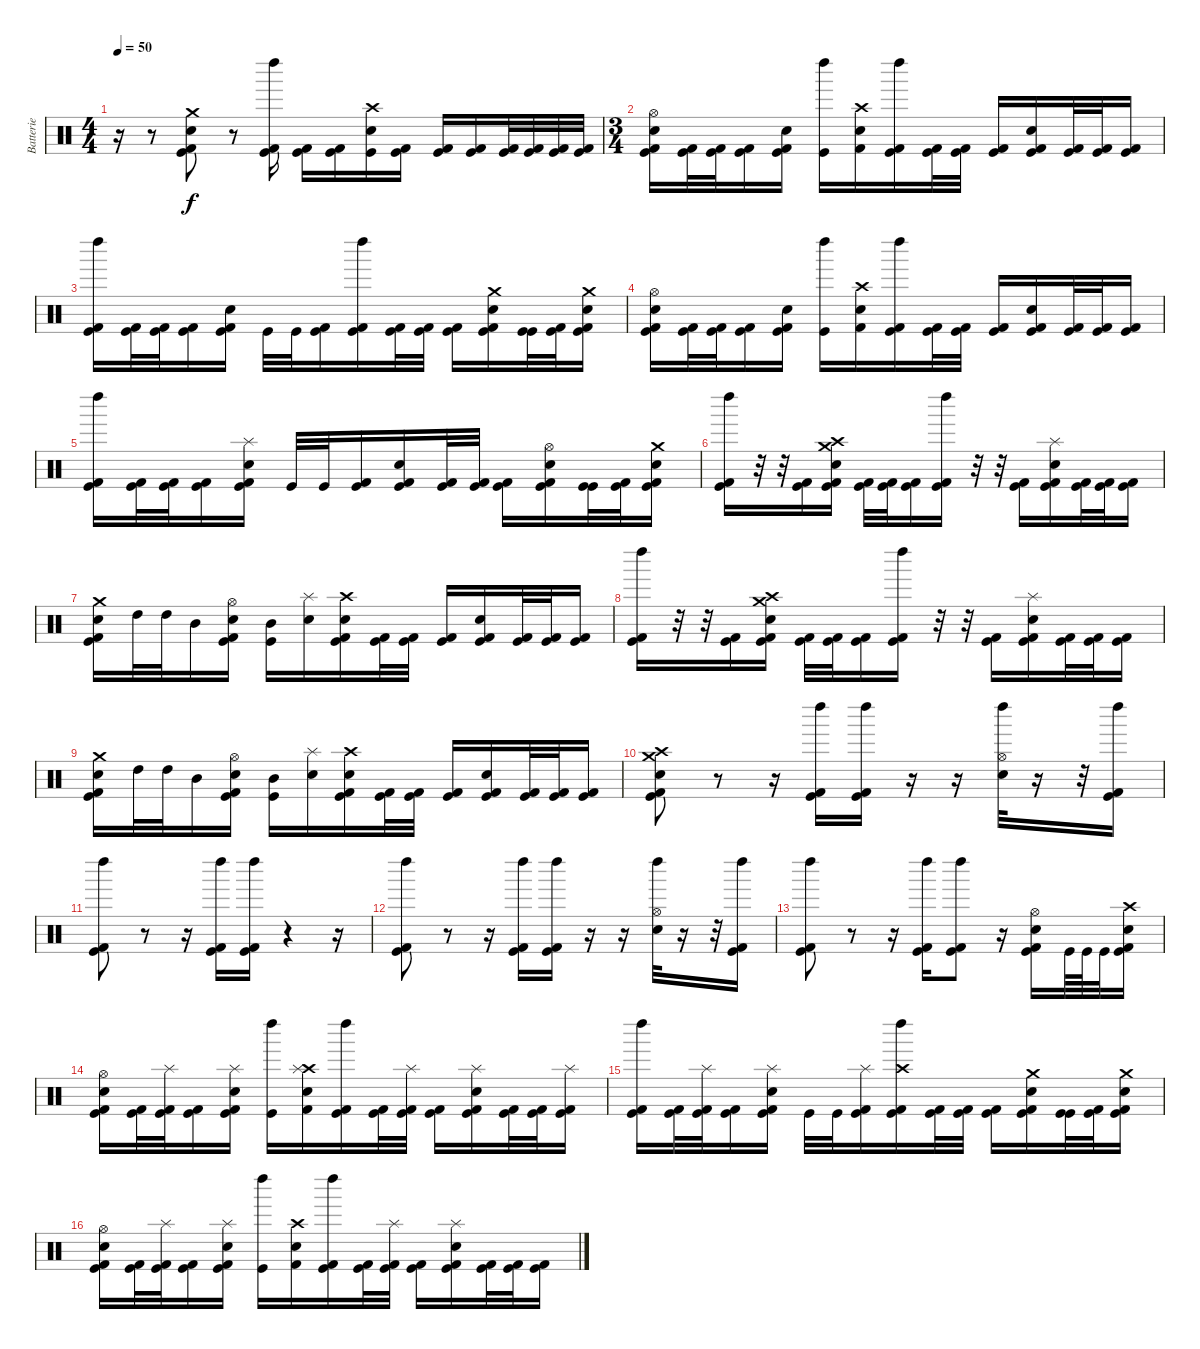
\track ("Batterie" "Batterie") {instrument percussion}
\staff {score}
\articulation defaults
\ts (4 4)
\tempo 50
\clef neutral
\ks c
r.16{dy f} r.8 ("Kick (hit)" "Kick (hit) 2" "Electric Snare (hit)" "Crash medium (hit)").8 r.8 ("Kick (hit)" "Kick (hit) 2" "Left Maraca (hit)").16 ("Kick (hit)" "Kick (hit) 2").16 ("Kick (hit)" "Kick (hit) 2").16 ("Kick (hit)" "Electric Snare (hit)" "Crash high (hit)").16 ("Kick (hit)" "Kick (hit) 2").16 ("Kick (hit)" "Kick (hit) 2").16 ("Kick (hit)" "Kick (hit) 2").16 ("Kick (hit)" "Kick (hit) 2").32 ("Kick (hit)" "Kick (hit) 2").32 ("Kick (hit)" "Kick (hit) 2").32 ("Kick (hit)" "Kick (hit) 2").32 |
\ts (3 4)
("Kick (hit)" "Kick (hit) 2" "Electric Snare (hit)" "Hi-Hat (open)").16 ("Kick (hit)" "Kick (hit) 2").32 ("Kick (hit)" "Kick (hit) 2").32 ("Kick (hit)" "Kick (hit) 2").16 ("Kick (hit)" "Kick (hit) 2" "Electric Snare (hit)").16 ("Kick (hit)" "Left Maraca (hit)").16 ("Kick (hit) 2" "Electric Snare (hit)" "Crash high (hit)").16 ("Kick (hit)" "Kick (hit) 2" "Left Maraca (hit)").16 ("Kick (hit)" "Kick (hit) 2").32 ("Kick (hit)" "Kick (hit) 2").32 ("Kick (hit)" "Kick (hit) 2").16 ("Kick (hit)" "Kick (hit) 2" "Electric Snare (hit)").16 ("Kick (hit)" "Kick (hit) 2").32 ("Kick (hit)" "Kick (hit) 2").32 ("Kick (hit)" "Kick (hit) 2").16 |
("Kick (hit)" "Kick (hit) 2" "Left Maraca (hit)").16 ("Kick (hit)" "Kick (hit) 2").32 ("Kick (hit)" "Kick (hit) 2").32 ("Kick (hit)" "Kick (hit) 2").16 ("Kick (hit)" "Kick (hit) 2" "Electric Snare (hit)").16 "Kick (hit)".32 "Kick (hit)".32 ("Kick (hit)" "Kick (hit) 2").16 ("Kick (hit)" "Kick (hit) 2" "Left Maraca (hit)").16 ("Kick (hit)" "Kick (hit) 2").32 ("Kick (hit)" "Kick (hit) 2").32 ("Kick (hit)" "Kick (hit) 2").16 ("Kick (hit)" "Kick (hit) 2" "Electric Snare (hit)" "Crash medium (hit)").16 ("Kick (hit)" "Kick (hit)").32 ("Kick (hit)" "Kick (hit) 2").32 ("Kick (hit)" "Kick (hit) 2" "Electric Snare (hit)" "Crash medium (hit)").16 |
("Kick (hit)" "Kick (hit) 2" "Electric Snare (hit)" "Hi-Hat (open)").16 ("Kick (hit)" "Kick (hit) 2").32 ("Kick (hit)" "Kick (hit) 2").32 ("Kick (hit)" "Kick (hit) 2").16 ("Kick (hit)" "Kick (hit) 2" "Electric Snare (hit)").16 ("Kick (hit)" "Left Maraca (hit)").16 ("Kick (hit) 2" "Electric Snare (hit)" "Crash high (hit)").16 ("Kick (hit)" "Kick (hit) 2" "Left Maraca (hit)").16 ("Kick (hit)" "Kick (hit) 2").32 ("Kick (hit)" "Kick (hit) 2").32 ("Kick (hit)" "Kick (hit) 2").16 ("Kick (hit)" "Kick (hit) 2" "Electric Snare (hit)").16 ("Kick (hit)" "Kick (hit) 2").32 ("Kick (hit)" "Kick (hit) 2").32 ("Kick (hit)" "Kick (hit) 2").16 |
("Kick (hit)" "Kick (hit) 2" "Left Maraca (hit)").16 ("Kick (hit)" "Kick (hit) 2").32 ("Kick (hit)" "Kick (hit) 2").32 ("Kick (hit)" "Kick (hit) 2").16 ("Kick (hit)" "Kick (hit) 2" "Electric Snare (hit)" "Splash (hit)").16 "Kick (hit)".32 "Kick (hit)".32 ("Kick (hit)" "Kick (hit) 2").16 ("Kick (hit)" "Kick (hit) 2" "Electric Snare (hit)").16 ("Kick (hit)" "Kick (hit) 2").32 ("Kick (hit)" "Kick (hit) 2").32 ("Kick (hit)" "Kick (hit) 2").16 ("Kick (hit)" "Kick (hit) 2" "Electric Snare (hit)" "Hi-Hat (open)").16 ("Kick (hit)" "Kick (hit)").32 ("Kick (hit)" "Kick (hit) 2").32 ("Kick (hit)" "Kick (hit) 2" "Electric Snare (hit)" "Crash medium (hit)").16 |
("Kick (hit)" "Kick (hit) 2" "Left Maraca (hit)").16 r.32 r.32 ("Kick (hit)" "Kick (hit) 2").16 ("Kick (hit)" "Kick (hit) 2" "Electric Snare (hit)" "Crash high (hit)" "Crash medium (hit)").16 ("Kick (hit)" "Kick (hit) 2").32 ("Kick (hit)" "Kick (hit) 2").32 ("Kick (hit)" "Kick (hit) 2").16 ("Kick (hit)" "Kick (hit) 2" "Left Maraca (hit)").16 r.32 r.32 ("Kick (hit)" "Kick (hit) 2").16 ("Kick (hit)" "Kick (hit) 2" "Electric Snare (hit)" "Splash (hit)").16 ("Kick (hit)" "Kick (hit) 2").32 ("Kick (hit)" "Kick (hit) 2").32 ("Kick (hit)" "Kick (hit) 2").16 |
("Kick (hit)" "Kick (hit) 2" "Electric Snare (hit)" "Crash medium (hit)").16 "High Tom (hit)".32 "High Tom (hit)".32 "Mid Tom (hit)".16 ("Kick (hit)" "Kick (hit) 2" "Electric Snare (hit)" "Hi-Hat (open)").16 ("Kick (hit)" "Mid Tom (hit)").16 ("Electric Snare (hit)" "Splash (hit)").16 ("Kick (hit)" "Kick (hit) 2" "Electric Snare (hit)" "Crash high (hit)").16 ("Kick (hit)" "Kick (hit) 2").32 ("Kick (hit)" "Kick (hit) 2").32 ("Kick (hit)" "Kick (hit) 2").16 ("Kick (hit)" "Kick (hit) 2" "Electric Snare (hit)").16 ("Kick (hit)" "Kick (hit) 2").32 ("Kick (hit)" "Kick (hit) 2").32 ("Kick (hit)" "Kick (hit) 2").16 |
("Kick (hit)" "Kick (hit) 2" "Left Maraca (hit)").16 r.32 r.32 ("Kick (hit)" "Kick (hit) 2").16 ("Kick (hit)" "Kick (hit) 2" "Electric Snare (hit)" "Crash high (hit)" "Crash medium (hit)").16 ("Kick (hit)" "Kick (hit) 2").32 ("Kick (hit)" "Kick (hit) 2").32 ("Kick (hit)" "Kick (hit) 2").16 ("Kick (hit)" "Kick (hit) 2" "Left Maraca (hit)").16 r.32 r.32 ("Kick (hit)" "Kick (hit) 2").16 ("Kick (hit)" "Kick (hit) 2" "Electric Snare (hit)" "Splash (hit)").16 ("Kick (hit)" "Kick (hit) 2").32 ("Kick (hit)" "Kick (hit) 2").32 ("Kick (hit)" "Kick (hit) 2").16 |
("Kick (hit)" "Kick (hit) 2" "Electric Snare (hit)" "Crash medium (hit)").16 "High Tom (hit)".32 "High Tom (hit)".32 "Mid Tom (hit)".16 ("Kick (hit)" "Kick (hit) 2" "Electric Snare (hit)" "Hi-Hat (open)").16 ("Kick (hit)" "Mid Tom (hit)").16 ("Electric Snare (hit)" "Splash (hit)").16 ("Kick (hit)" "Kick (hit) 2" "Electric Snare (hit)" "Crash high (hit)").16 ("Kick (hit)" "Kick (hit) 2").32 ("Kick (hit)" "Kick (hit) 2").32 ("Kick (hit)" "Kick (hit) 2").16 ("Kick (hit)" "Kick (hit) 2" "Electric Snare (hit)").16 ("Kick (hit)" "Kick (hit) 2").32 ("Kick (hit)" "Kick (hit) 2").32 ("Kick (hit)" "Kick (hit) 2").16 |
("Kick (hit)" "Kick (hit) 2" "Electric Snare (hit)" "Crash high (hit)" "Crash medium (hit)").8 r.8 r.16 ("Kick (hit)" "Kick (hit) 2" "Left Maraca (hit)").16 ("Kick (hit)" "Kick (hit) 2" "Left Maraca (hit)").16 r.16 r.16 ("Electric Snare (hit)" "Hi-Hat (open)" "Left Maraca (hit)").32 r.16 r.32 ("Kick (hit)" "Kick (hit) 2" "Left Maraca (hit)").16 |
("Kick (hit)" "Kick (hit) 2" "Left Maraca (hit)").8 r.8 r.16 ("Kick (hit)" "Kick (hit) 2" "Left Maraca (hit)").16 ("Kick (hit)" "Kick (hit) 2" "Left Maraca (hit)").16 r.4 r.16 |
("Kick (hit)" "Kick (hit) 2" "Left Maraca (hit)").8 r.8 r.16 ("Kick (hit)" "Kick (hit) 2" "Left Maraca (hit)").16 ("Kick (hit)" "Kick (hit) 2" "Left Maraca (hit)").16 r.16 r.16 ("Electric Snare (hit)" "Hi-Hat (open)" "Left Maraca (hit)").32 r.16 r.32 ("Kick (hit)" "Kick (hit) 2" "Left Maraca (hit)").16 |
("Kick (hit)" "Kick (hit) 2" "Left Maraca (hit)").8 r.8 r.16 ("Kick (hit)" "Kick (hit) 2" "Left Maraca (hit)").16 ("Kick (hit)" "Kick (hit) 2" "Left Maraca (hit)").8 r.16 ("Kick (hit)" "Kick (hit) 2" "Electric Snare (hit)" "Hi-Hat (open)").16 "Kick (hit)".64 "Kick (hit)".64 "Kick (hit)".32 ("Kick (hit)" "Kick (hit) 2" "Electric Snare (hit)" "Crash high (hit)").16 |
("Kick (hit)" "Kick (hit) 2" "Electric Snare (hit)" "Hi-Hat (open)").16 ("Kick (hit)" "Kick (hit) 2").32 ("Kick (hit)" "Kick (hit) 2" "Splash (hit)").32 ("Kick (hit)" "Kick (hit) 2").16 ("Kick (hit)" "Kick (hit) 2" "Electric Snare (hit)" "Splash (hit)").16 ("Kick (hit)" "Left Maraca (hit)").16 ("Kick (hit) 2" "Electric Snare (hit)" "Crash high (hit)" "Splash (hit)").16 ("Kick (hit)" "Kick (hit) 2" "Left Maraca (hit)").16 ("Kick (hit)" "Kick (hit) 2").32 ("Kick (hit)" "Kick (hit) 2" "Splash (hit)").32 ("Kick (hit)" "Kick (hit) 2").16 ("Kick (hit)" "Kick (hit) 2" "Electric Snare (hit)" "Splash (hit)").16 ("Kick (hit)" "Kick (hit) 2").32 ("Kick (hit)" "Kick (hit) 2").32 ("Kick (hit)" "Kick (hit) 2" "Splash (hit)").16 |
("Kick (hit)" "Kick (hit) 2" "Left Maraca (hit)").16 ("Kick (hit)" "Kick (hit) 2").32 ("Kick (hit)" "Kick (hit) 2" "Splash (hit)").32 ("Kick (hit)" "Kick (hit) 2").16 ("Kick (hit)" "Kick (hit) 2" "Electric Snare (hit)" "Splash (hit)").16 "Kick (hit)".32 "Kick (hit)".32 ("Kick (hit)" "Kick (hit) 2" "Splash (hit)").16 ("Kick (hit)" "Kick (hit) 2" "Left Maraca (hit)" "Crash high (hit)").16 ("Kick (hit)" "Kick (hit) 2").32 ("Kick (hit)" "Kick (hit) 2").32 ("Kick (hit)" "Kick (hit) 2").16 ("Kick (hit)" "Kick (hit) 2" "Electric Snare (hit)" "Crash medium (hit)").16 ("Kick (hit)" "Kick (hit)").32 ("Kick (hit)" "Kick (hit) 2").32 ("Kick (hit)" "Kick (hit) 2" "Electric Snare (hit)" "Crash medium (hit)").16 |
("Kick (hit)" "Kick (hit) 2" "Electric Snare (hit)" "Hi-Hat (open)").16 ("Kick (hit)" "Kick (hit) 2").32 ("Kick (hit)" "Kick (hit) 2" "Splash (hit)").32 ("Kick (hit)" "Kick (hit) 2").16 ("Kick (hit)" "Kick (hit) 2" "Electric Snare (hit)" "Splash (hit)").16 ("Kick (hit)" "Left Maraca (hit)").16 ("Kick (hit) 2" "Electric Snare (hit)" "Crash high (hit)").16 ("Kick (hit)" "Kick (hit) 2" "Left Maraca (hit)").16 ("Kick (hit)" "Kick (hit) 2").32 ("Kick (hit)" "Kick (hit) 2" "Splash (hit)").32 ("Kick (hit)" "Kick (hit) 2").16 ("Kick (hit)" "Kick (hit) 2" "Electric Snare (hit)" "Splash (hit)").16 ("Kick (hit)" "Kick (hit) 2").32 ("Kick (hit)" "Kick (hit) 2").32 ("Kick (hit)" "Kick (hit) 2").16
